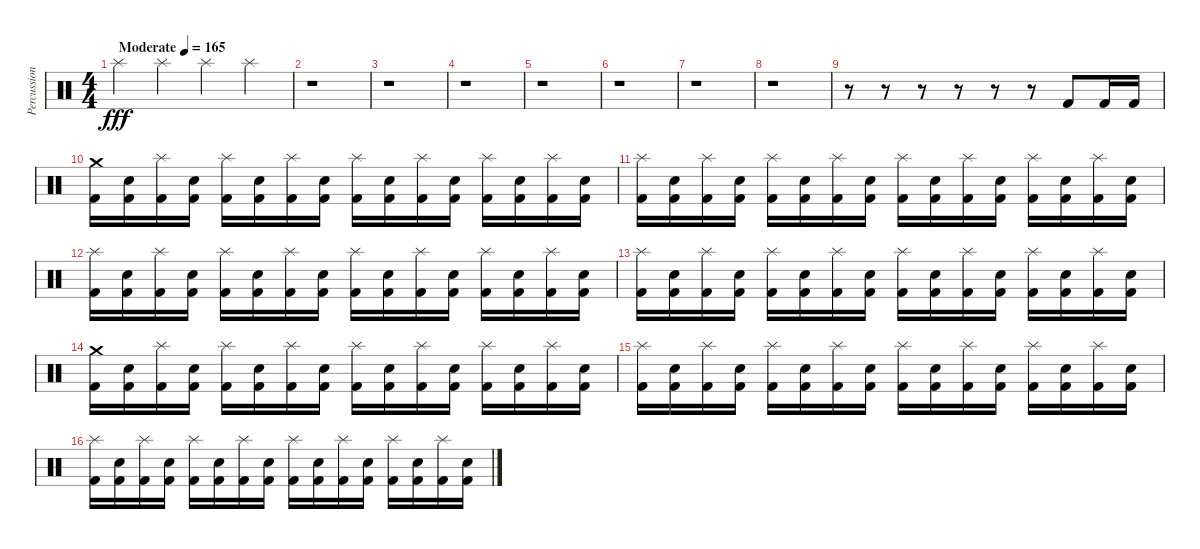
\track ("Percussions" "Percussion") {instrument percussion}
\staff {score}
\articulation defaults
\ts (4 4)
\tempo (165 "Moderate")
\clef neutral
\ks c "Splash (hit)".4{dy fff} "Splash (hit)".4 "Splash (hit)".4 "Splash (hit)".4
|
r.1 |
r.1 |
r.1 |
r.1 |
r.1 |
r.1 |
r.1 |
r.8 r.8 r.8 r.8 r.8 r.8 "Kick (hit) 2".8 "Kick (hit) 2".16 "Kick (hit) 2".16 |
("Crash medium (hit)" "Kick (hit) 2").16 ("Electric Snare (hit)" "Kick (hit) 2").16 ("Splash (hit)" "Kick (hit) 2").16 ("Electric Snare (hit)" "Kick (hit) 2").16 ("Splash (hit)" "Kick (hit) 2").16 ("Electric Snare (hit)" "Kick (hit) 2").16 ("Splash (hit)" "Kick (hit) 2").16 ("Electric Snare (hit)" "Kick (hit) 2").16 ("Splash (hit)" "Kick (hit) 2").16 ("Electric Snare (hit)" "Kick (hit) 2").16 ("Splash (hit)" "Kick (hit) 2").16 ("Electric Snare (hit)" "Kick (hit) 2").16 ("Splash (hit)" "Kick (hit) 2").16 ("Electric Snare (hit)" "Kick (hit) 2").16 ("Splash (hit)" "Kick (hit) 2").16 ("Electric Snare (hit)" "Kick (hit) 2").16 |
("Splash (hit)" "Kick (hit) 2").16 ("Electric Snare (hit)" "Kick (hit) 2").16 ("Splash (hit)" "Kick (hit) 2").16 ("Electric Snare (hit)" "Kick (hit) 2").16 ("Splash (hit)" "Kick (hit) 2").16 ("Electric Snare (hit)" "Kick (hit) 2").16 ("Splash (hit)" "Kick (hit) 2").16 ("Electric Snare (hit)" "Kick (hit) 2").16 ("Splash (hit)" "Kick (hit) 2").16 ("Electric Snare (hit)" "Kick (hit) 2").16 ("Splash (hit)" "Kick (hit) 2").16 ("Electric Snare (hit)" "Kick (hit) 2").16 ("Splash (hit)" "Kick (hit) 2").16 ("Electric Snare (hit)" "Kick (hit) 2").16 ("Splash (hit)" "Kick (hit) 2").16 ("Electric Snare (hit)" "Kick (hit) 2").16 |
("Splash (hit)" "Kick (hit) 2").16 ("Electric Snare (hit)" "Kick (hit) 2").16 ("Splash (hit)" "Kick (hit) 2").16 ("Electric Snare (hit)" "Kick (hit) 2").16 ("Splash (hit)" "Kick (hit) 2").16 ("Electric Snare (hit)" "Kick (hit) 2").16 ("Splash (hit)" "Kick (hit) 2").16 ("Electric Snare (hit)" "Kick (hit) 2").16 ("Splash (hit)" "Kick (hit) 2").16 ("Electric Snare (hit)" "Kick (hit) 2").16 ("Splash (hit)" "Kick (hit) 2").16 ("Electric Snare (hit)" "Kick (hit) 2").16 ("Splash (hit)" "Kick (hit) 2").16 ("Electric Snare (hit)" "Kick (hit) 2").16 ("Splash (hit)" "Kick (hit) 2").16 ("Electric Snare (hit)" "Kick (hit) 2").16 |
("Splash (hit)" "Kick (hit) 2").16 ("Electric Snare (hit)" "Kick (hit) 2").16 ("Splash (hit)" "Kick (hit) 2").16 ("Electric Snare (hit)" "Kick (hit) 2").16 ("Splash (hit)" "Kick (hit) 2").16 ("Electric Snare (hit)" "Kick (hit) 2").16 ("Splash (hit)" "Kick (hit) 2").16 ("Electric Snare (hit)" "Kick (hit) 2").16 ("Splash (hit)" "Kick (hit) 2").16 ("Electric Snare (hit)" "Kick (hit) 2").16 ("Splash (hit)" "Kick (hit) 2").16 ("Electric Snare (hit)" "Kick (hit) 2").16 ("Splash (hit)" "Kick (hit) 2").16 ("Electric Snare (hit)" "Kick (hit) 2").16 ("Splash (hit)" "Kick (hit) 2").16 ("Electric Snare (hit)" "Kick (hit) 2").16 |
("Crash medium (hit)" "Kick (hit) 2").16 ("Electric Snare (hit)" "Kick (hit) 2").16 ("Splash (hit)" "Kick (hit) 2").16 ("Electric Snare (hit)" "Kick (hit) 2").16 ("Splash (hit)" "Kick (hit) 2").16 ("Electric Snare (hit)" "Kick (hit) 2").16 ("Splash (hit)" "Kick (hit) 2").16 ("Electric Snare (hit)" "Kick (hit) 2").16 ("Splash (hit)" "Kick (hit) 2").16 ("Electric Snare (hit)" "Kick (hit) 2").16 ("Splash (hit)" "Kick (hit) 2").16 ("Electric Snare (hit)" "Kick (hit) 2").16 ("Splash (hit)" "Kick (hit) 2").16 ("Electric Snare (hit)" "Kick (hit) 2").16 ("Splash (hit)" "Kick (hit) 2").16 ("Electric Snare (hit)" "Kick (hit) 2").16 |
("Splash (hit)" "Kick (hit) 2").16 ("Electric Snare (hit)" "Kick (hit) 2").16 ("Splash (hit)" "Kick (hit) 2").16 ("Electric Snare (hit)" "Kick (hit) 2").16 ("Splash (hit)" "Kick (hit) 2").16 ("Electric Snare (hit)" "Kick (hit) 2").16 ("Splash (hit)" "Kick (hit) 2").16 ("Electric Snare (hit)" "Kick (hit) 2").16 ("Splash (hit)" "Kick (hit) 2").16 ("Electric Snare (hit)" "Kick (hit) 2").16 ("Splash (hit)" "Kick (hit) 2").16 ("Electric Snare (hit)" "Kick (hit) 2").16 ("Splash (hit)" "Kick (hit) 2").16 ("Electric Snare (hit)" "Kick (hit) 2").16 ("Splash (hit)" "Kick (hit) 2").16 ("Electric Snare (hit)" "Kick (hit) 2").16 |
("Splash (hit)" "Kick (hit) 2").16 ("Electric Snare (hit)" "Kick (hit) 2").16 ("Splash (hit)" "Kick (hit) 2").16 ("Electric Snare (hit)" "Kick (hit) 2").16 ("Splash (hit)" "Kick (hit) 2").16 ("Electric Snare (hit)" "Kick (hit) 2").16 ("Splash (hit)" "Kick (hit) 2").16 ("Electric Snare (hit)" "Kick (hit) 2").16 ("Splash (hit)" "Kick (hit) 2").16 ("Electric Snare (hit)" "Kick (hit) 2").16 ("Splash (hit)" "Kick (hit) 2").16 ("Electric Snare (hit)" "Kick (hit) 2").16 ("Splash (hit)" "Kick (hit) 2").16 ("Electric Snare (hit)" "Kick (hit) 2").16 ("Splash (hit)" "Kick (hit) 2").16 ("Electric Snare (hit)" "Kick (hit) 2").16
